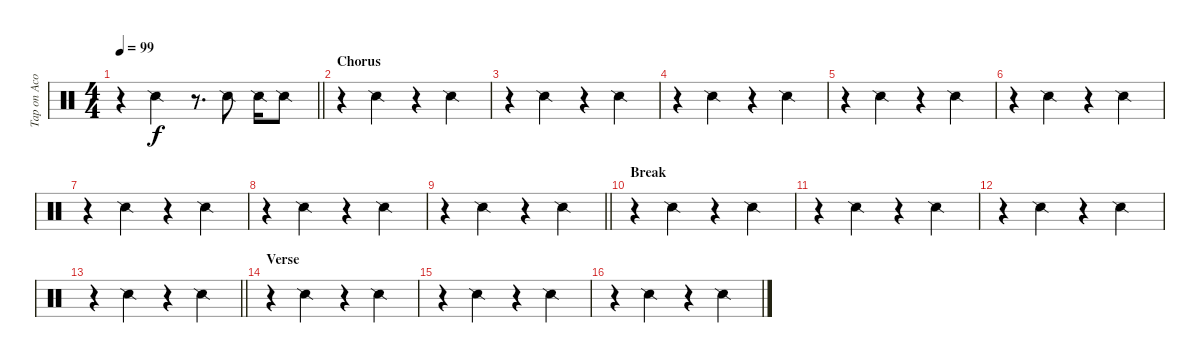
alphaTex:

\track ("Tap on Acoustic" "Tap on Aco") {instrument percussion}
\staff {score}
\articulation defaults
\ts (4 4)
\tempo 99
\clef neutral
\barLineRight lightlight
\ks c
r.4{dy f} "Snare (side stick) 2".4 r.8{d} "Snare (side stick) 2".8 "Snare (side stick) 2".16 "Snare (side stick) 2".8 |
\section ("" "Chorus")
r.4 "Snare (side stick) 2".4 r.4 "Snare (side stick) 2".4 |
r.4 "Snare (side stick) 2".4 r.4 "Snare (side stick) 2".4 |
r.4 "Snare (side stick) 2".4 r.4 "Snare (side stick) 2".4 |
r.4 "Snare (side stick) 2".4 r.4 "Snare (side stick) 2".4 |
r.4 "Snare (side stick) 2".4 r.4 "Snare (side stick) 2".4 |
r.4 "Snare (side stick) 2".4 r.4 "Snare (side stick) 2".4 |
r.4 "Snare (side stick) 2".4 r.4 "Snare (side stick) 2".4 |
\barLineRight lightlight
r.4 "Snare (side stick) 2".4 r.4 "Snare (side stick) 2".4 |
\section ("" "Break")
r.4 "Snare (side stick) 2".4 r.4 "Snare (side stick) 2".4 |
r.4 "Snare (side stick) 2".4 r.4 "Snare (side stick) 2".4 |
r.4 "Snare (side stick) 2".4 r.4 "Snare (side stick) 2".4 |
\barLineRight lightlight
r.4 "Snare (side stick) 2".4 r.4 "Snare (side stick) 2".4 |
\section ("" "Verse")
r.4 "Snare (side stick) 2".4 r.4 "Snare (side stick) 2".4 |
r.4 "Snare (side stick) 2".4 r.4 "Snare (side stick) 2".4 |
r.4 "Snare (side stick) 2".4 r.4 "Snare (side stick) 2".4
